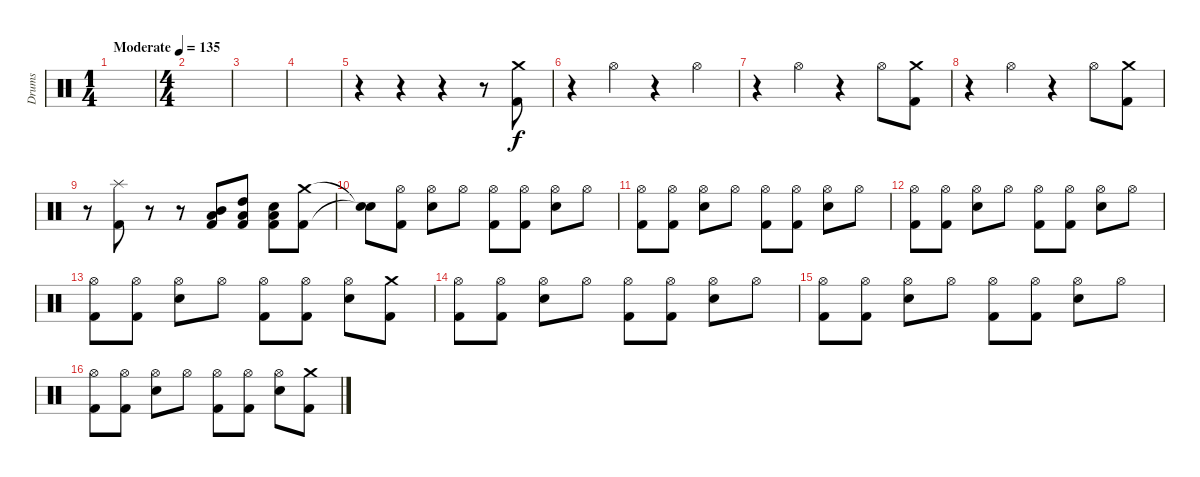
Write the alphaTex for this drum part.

\track ("Drums" "Drums") {instrument percussion}
\staff {score}
\articulation defaults
\ts (1 4)
\tempo (135 "Moderate")
\clef neutral
\ks c
|
\ts (4 4)
|
|
|
r.4 r.4 r.4 r.8 ("Crash medium (hit)" "Kick (hit) 2").8 |
r.4 "Hi-Hat (open)".4 r.4 "Hi-Hat (open)".4 |
r.4 "Hi-Hat (open)".4 r.4 "Hi-Hat (open)".8 ("Crash medium (hit)" "Kick (hit) 2").8 |
r.4 "Hi-Hat (open)".4 r.4 "Hi-Hat (open)".8 ("Crash medium (hit)" "Kick (hit) 2").8 |
r.8 ("Splash (hit)" "Kick (hit) 2").8 r.8 r.8 ("Mid Tom (hit)" "Kick (hit) 2" "Low Tom (hit)").8 ("High Tom (hit)" "Kick (hit) 2" "Low Tom (hit)").8 ("Electric Snare (hit)" "Kick (hit) 2" "Low Tom (hit)").8 ("Kick (hit) 2" "Crash medium (hit)").8 |
("Snare (hit)"{t} "Snare (hit)"{t}).8 ("Hi-Hat (open)" "Kick (hit) 2").8 ("Hi-Hat (open)" "Electric Snare (hit)").8 "Hi-Hat (open)".8 ("Hi-Hat (open)" "Kick (hit) 2").8 ("Hi-Hat (open)" "Kick (hit) 2").8 ("Hi-Hat (open)" "Electric Snare (hit)").8 "Hi-Hat (open)".8 |
("Hi-Hat (open)" "Kick (hit) 2").8 ("Hi-Hat (open)" "Kick (hit) 2").8 ("Hi-Hat (open)" "Electric Snare (hit)").8 "Hi-Hat (open)".8 ("Hi-Hat (open)" "Kick (hit) 2").8 ("Hi-Hat (open)" "Kick (hit) 2").8 ("Hi-Hat (open)" "Electric Snare (hit)").8 "Hi-Hat (open)".8 |
("Hi-Hat (open)" "Kick (hit) 2").8 ("Hi-Hat (open)" "Kick (hit) 2").8 ("Hi-Hat (open)" "Electric Snare (hit)").8 "Hi-Hat (open)".8 ("Hi-Hat (open)" "Kick (hit) 2").8 ("Hi-Hat (open)" "Kick (hit) 2").8 ("Hi-Hat (open)" "Electric Snare (hit)").8 "Hi-Hat (open)".8 |
("Hi-Hat (open)" "Kick (hit) 2").8 ("Hi-Hat (open)" "Kick (hit) 2").8 ("Hi-Hat (open)" "Electric Snare (hit)").8 "Hi-Hat (open)".8 ("Hi-Hat (open)" "Kick (hit) 2").8 ("Hi-Hat (open)" "Kick (hit) 2").8 ("Hi-Hat (open)" "Electric Snare (hit)").8 ("Crash medium (hit)" "Kick (hit) 2").8 |
("Hi-Hat (open)" "Kick (hit) 2").8 ("Hi-Hat (open)" "Kick (hit) 2").8 ("Hi-Hat (open)" "Electric Snare (hit)").8 "Hi-Hat (open)".8 ("Hi-Hat (open)" "Kick (hit) 2").8 ("Hi-Hat (open)" "Kick (hit) 2").8 ("Hi-Hat (open)" "Electric Snare (hit)").8 "Hi-Hat (open)".8 |
("Hi-Hat (open)" "Kick (hit) 2").8 ("Hi-Hat (open)" "Kick (hit) 2").8 ("Hi-Hat (open)" "Electric Snare (hit)").8 "Hi-Hat (open)".8 ("Hi-Hat (open)" "Kick (hit) 2").8 ("Hi-Hat (open)" "Kick (hit) 2").8 ("Hi-Hat (open)" "Electric Snare (hit)").8 "Hi-Hat (open)".8 |
("Hi-Hat (open)" "Kick (hit) 2").8 ("Hi-Hat (open)" "Kick (hit) 2").8 ("Hi-Hat (open)" "Electric Snare (hit)").8 "Hi-Hat (open)".8 ("Hi-Hat (open)" "Kick (hit) 2").8 ("Hi-Hat (open)" "Kick (hit) 2").8 ("Hi-Hat (open)" "Electric Snare (hit)").8 ("Crash medium (hit)" "Kick (hit) 2").8
